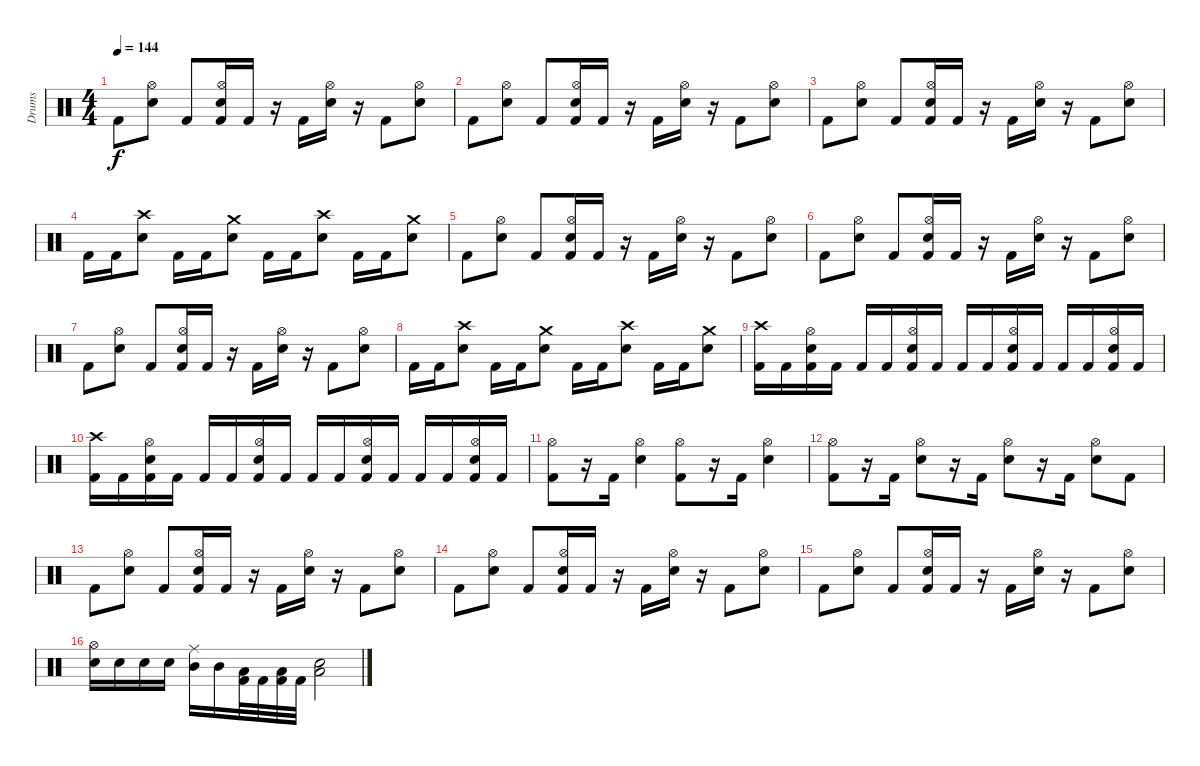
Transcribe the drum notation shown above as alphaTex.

\track ("Drums" "Drums") {instrument percussion}
\staff {score}
\articulation defaults
\ts (4 4)
\tempo 144
\clef neutral
\ks c "Kick (hit) 2".8{dy f}
("Hi-Hat (open)" "Snare (hit) 2").8 "Kick (hit) 2".8 ("Hi-Hat (open)" "Snare (hit) 2" "Kick (hit) 2").16 "Kick (hit) 2".16 r.16 "Kick (hit) 2".16 ("Hi-Hat (open)" "Snare (hit) 2").16 r.16 "Kick (hit) 2".8 ("Hi-Hat (open)" "Snare (hit) 2").8 |
"Kick (hit) 2".8 ("Hi-Hat (open)" "Snare (hit) 2").8 "Kick (hit) 2".8 ("Hi-Hat (open)" "Snare (hit) 2" "Kick (hit) 2").16 "Kick (hit) 2".16 r.16 "Kick (hit) 2".16 ("Hi-Hat (open)" "Snare (hit) 2").16 r.16 "Kick (hit) 2".8 ("Hi-Hat (open)" "Snare (hit) 2").8 |
"Kick (hit) 2".8 ("Hi-Hat (open)" "Snare (hit) 2").8 "Kick (hit) 2".8 ("Hi-Hat (open)" "Snare (hit) 2" "Kick (hit) 2").16 "Kick (hit) 2".16 r.16 "Kick (hit) 2".16 ("Hi-Hat (open)" "Snare (hit) 2").16 r.16 "Kick (hit) 2".8 ("Hi-Hat (open)" "Snare (hit) 2").8 |
"Kick (hit) 2".16 "Kick (hit) 2".16 ("Crash high (hit)" "Snare (hit) 2").8 "Kick (hit) 2".16 "Kick (hit) 2".16 ("Crash medium (hit)" "Snare (hit) 2").8 "Kick (hit) 2".16 "Kick (hit) 2".16 ("Crash high (hit)" "Snare (hit) 2").8 "Kick (hit) 2".16 "Kick (hit) 2".16 ("Crash medium (hit)" "Snare (hit) 2").8 |
"Kick (hit) 2".8 ("Hi-Hat (open)" "Snare (hit) 2").8 "Kick (hit) 2".8 ("Hi-Hat (open)" "Snare (hit) 2" "Kick (hit) 2").16 "Kick (hit) 2".16 r.16 "Kick (hit) 2".16 ("Hi-Hat (open)" "Snare (hit) 2").16 r.16 "Kick (hit) 2".8 ("Hi-Hat (open)" "Snare (hit) 2").8 |
"Kick (hit) 2".8 ("Hi-Hat (open)" "Snare (hit) 2").8 "Kick (hit) 2".8 ("Hi-Hat (open)" "Snare (hit) 2" "Kick (hit) 2").16 "Kick (hit) 2".16 r.16 "Kick (hit) 2".16 ("Hi-Hat (open)" "Snare (hit) 2").16 r.16 "Kick (hit) 2".8 ("Hi-Hat (open)" "Snare (hit) 2").8 |
"Kick (hit) 2".8 ("Hi-Hat (open)" "Snare (hit) 2").8 "Kick (hit) 2".8 ("Hi-Hat (open)" "Snare (hit) 2" "Kick (hit) 2").16 "Kick (hit) 2".16 r.16 "Kick (hit) 2".16 ("Hi-Hat (open)" "Snare (hit) 2").16 r.16 "Kick (hit) 2".8 ("Hi-Hat (open)" "Snare (hit) 2").8 |
"Kick (hit) 2".16 "Kick (hit) 2".16 ("Crash high (hit)" "Snare (hit) 2").8 "Kick (hit) 2".16 "Kick (hit) 2".16 ("Crash medium (hit)" "Snare (hit) 2").8 "Kick (hit) 2".16 "Kick (hit) 2".16 ("Crash high (hit)" "Snare (hit) 2").8 "Kick (hit) 2".16 "Kick (hit) 2".16 ("Crash medium (hit)" "Snare (hit) 2").8 |
("Crash high (hit)" "Kick (hit) 2").16 "Kick (hit) 2".16 ("Hi-Hat (open)" "Snare (hit) 2" "Kick (hit) 2").16 "Kick (hit) 2".16 "Kick (hit) 2".16 "Kick (hit) 2".16 ("Hi-Hat (open)" "Snare (hit) 2" "Kick (hit) 2").16 "Kick (hit) 2".16 "Kick (hit) 2".16 "Kick (hit) 2".16 ("Hi-Hat (open)" "Snare (hit) 2" "Kick (hit) 2").16 "Kick (hit) 2".16 "Kick (hit) 2".16 "Kick (hit) 2".16 ("Hi-Hat (open)" "Snare (hit) 2" "Kick (hit) 2").16 "Kick (hit) 2".16 |
("Crash high (hit)" "Kick (hit) 2").16 "Kick (hit) 2".16 ("Hi-Hat (open)" "Snare (hit) 2" "Kick (hit) 2").16 "Kick (hit) 2".16 "Kick (hit) 2".16 "Kick (hit) 2".16 ("Hi-Hat (open)" "Snare (hit) 2" "Kick (hit) 2").16 "Kick (hit) 2".16 "Kick (hit) 2".16 "Kick (hit) 2".16 ("Hi-Hat (open)" "Snare (hit) 2" "Kick (hit) 2").16 "Kick (hit) 2".16 "Kick (hit) 2".16 "Kick (hit) 2".16 ("Hi-Hat (open)" "Snare (hit) 2" "Kick (hit) 2").16 "Kick (hit) 2".16 |
("Hi-Hat (open)" "Kick (hit) 2").8 r.16 "Kick (hit) 2".16 ("Hi-Hat (open)" "Snare (hit) 2").4 ("Hi-Hat (open)" "Kick (hit) 2").8 r.16 "Kick (hit) 2".16 ("Hi-Hat (open)" "Snare (hit) 2").4 |
("Hi-Hat (open)" "Kick (hit) 2").8 r.16 "Kick (hit) 2".16 ("Hi-Hat (open)" "Snare (hit) 2").8 r.16 "Kick (hit) 2".16 ("Hi-Hat (open)" "Snare (hit) 2").8 r.16 "Kick (hit) 2".16 ("Hi-Hat (open)" "Snare (hit) 2").8 "Kick (hit) 2".8 |
"Kick (hit) 2".8 ("Hi-Hat (open)" "Snare (hit) 2").8 "Kick (hit) 2".8 ("Hi-Hat (open)" "Snare (hit) 2" "Kick (hit) 2").16 "Kick (hit) 2".16 r.16 "Kick (hit) 2".16 ("Hi-Hat (open)" "Snare (hit) 2").16 r.16 "Kick (hit) 2".8 ("Hi-Hat (open)" "Snare (hit) 2").8 |
"Kick (hit) 2".8 ("Hi-Hat (open)" "Snare (hit) 2").8 "Kick (hit) 2".8 ("Hi-Hat (open)" "Snare (hit) 2" "Kick (hit) 2").16 "Kick (hit) 2".16 r.16 "Kick (hit) 2".16 ("Hi-Hat (open)" "Snare (hit) 2").16 r.16 "Kick (hit) 2".8 ("Hi-Hat (open)" "Snare (hit) 2").8 |
"Kick (hit) 2".8 ("Hi-Hat (open)" "Snare (hit) 2").8 "Kick (hit) 2".8 ("Hi-Hat (open)" "Snare (hit) 2" "Kick (hit) 2").16 "Kick (hit) 2".16 r.16 "Kick (hit) 2".16 ("Hi-Hat (open)" "Snare (hit) 2").16 r.16 "Kick (hit) 2".8 ("Hi-Hat (open)" "Snare (hit) 2").8 |
("Hi-Hat (open)" "Electric Snare (hit)").16 "Electric Snare (hit)".16 "Electric Snare (hit)".16 "Electric Snare (hit)".16 ("Ride (middle)" "Mid Tom (hit)").16 "Mid Tom (hit)".16 ("Low Tom (hit)" "Kick (hit) 2").32 "Kick (hit) 2".32 ("Low Tom (hit)" "Kick (hit) 2").32 "Kick (hit) 2".32 ("Low Floor Tom (hit)" "Snare (hit) 2").2
